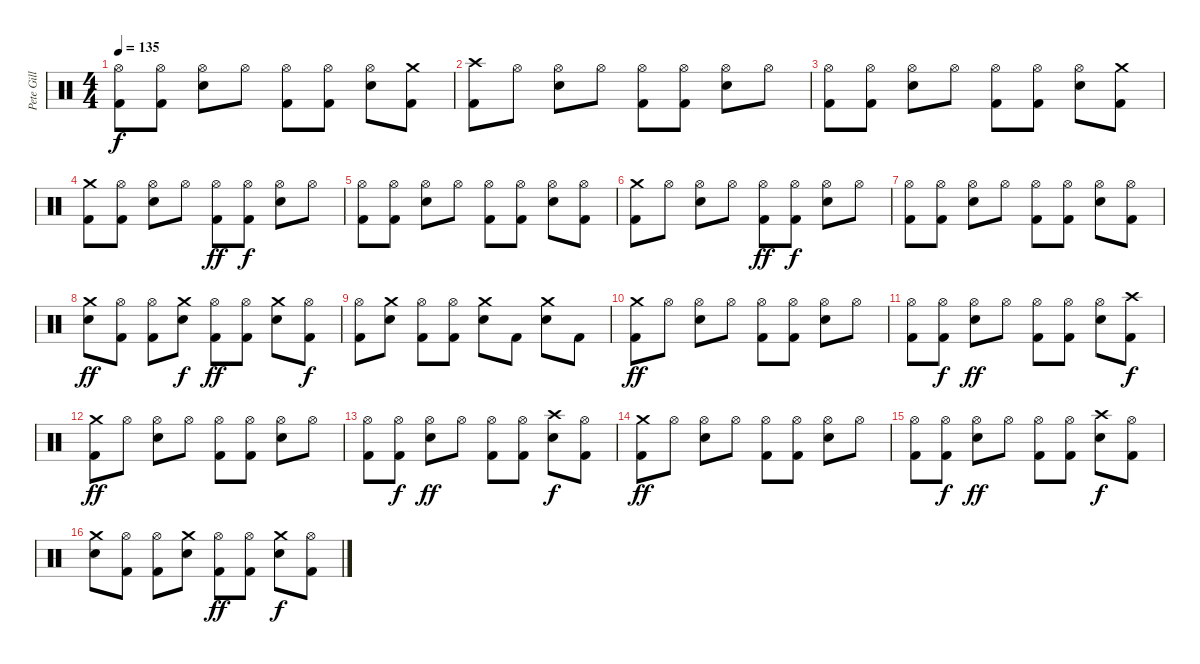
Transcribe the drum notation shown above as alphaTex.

\track ("Pete Gill" "Pete Gill") {instrument percussion}
\staff {score}
\articulation defaults
\ts (4 4)
\tempo 135
\clef neutral
\ks c
("Hi-Hat (open)" "Kick (hit) 2").8{dy f} ("Hi-Hat (open)" "Kick (hit) 2").8 ("Hi-Hat (open)" "Snare (hit) 2").8 "Hi-Hat (open)".8 ("Hi-Hat (open)" "Kick (hit) 2").8 ("Hi-Hat (open)" "Kick (hit) 2").8 ("Hi-Hat (open)" "Snare (hit) 2").8 ("Kick (hit) 2" "Crash medium (hit)").8 |
("Kick (hit) 2" "Crash high (hit)").8 "Hi-Hat (open)".8 ("Hi-Hat (open)" "Snare (hit) 2").8 "Hi-Hat (open)".8 ("Hi-Hat (open)" "Kick (hit) 2").8 ("Hi-Hat (open)" "Kick (hit) 2").8 ("Hi-Hat (open)" "Snare (hit) 2").8 "Hi-Hat (open)".8 |
("Hi-Hat (open)" "Kick (hit) 2").8 ("Hi-Hat (open)" "Kick (hit) 2").8 ("Hi-Hat (open)" "Snare (hit) 2").8 "Hi-Hat (open)".8 ("Hi-Hat (open)" "Kick (hit) 2").8 ("Hi-Hat (open)" "Kick (hit) 2").8 ("Hi-Hat (open)" "Snare (hit) 2").8 ("Kick (hit) 2" "Crash medium (hit)").8 |
("Crash medium (hit)" "Kick (hit) 2").8 ("Hi-Hat (open)" "Kick (hit) 2").8 ("Hi-Hat (open)" "Snare (hit) 2").8 "Hi-Hat (open)".8 ("Hi-Hat (open)" "Kick (hit) 2").8{dy ff} ("Hi-Hat (open)" "Kick (hit) 2").8{dy f} ("Hi-Hat (open)" "Snare (hit) 2").8 "Hi-Hat (open)".8 |
("Hi-Hat (open)" "Kick (hit) 2").8 ("Hi-Hat (open)" "Kick (hit) 2").8 ("Hi-Hat (open)" "Snare (hit) 2").8 "Hi-Hat (open)".8 ("Hi-Hat (open)" "Kick (hit) 2").8 ("Hi-Hat (open)" "Kick (hit) 2").8 ("Hi-Hat (open)" "Snare (hit) 2").8 ("Hi-Hat (open)" "Kick (hit) 2").8 |
("Crash medium (hit)" "Kick (hit) 2").8 "Hi-Hat (open)".8 ("Hi-Hat (open)" "Snare (hit) 2").8 "Hi-Hat (open)".8 ("Hi-Hat (open)" "Kick (hit) 2").8{dy ff} ("Hi-Hat (open)" "Kick (hit) 2").8{dy f} ("Hi-Hat (open)" "Snare (hit) 2").8 "Hi-Hat (open)".8 |
("Hi-Hat (open)" "Kick (hit) 2").8 ("Hi-Hat (open)" "Kick (hit) 2").8 ("Hi-Hat (open)" "Snare (hit) 2").8 "Hi-Hat (open)".8 ("Hi-Hat (open)" "Kick (hit) 2").8 ("Hi-Hat (open)" "Kick (hit) 2").8 ("Hi-Hat (open)" "Snare (hit) 2").8 ("Hi-Hat (open)" "Kick (hit) 2").8 |
("Crash medium (hit)" "Snare (hit) 2").8{dy ff} ("Hi-Hat (open)" "Kick (hit) 2").8 ("Hi-Hat (open)" "Kick (hit) 2").8 ("Crash medium (hit)" "Snare (hit) 2").8{dy f} ("Hi-Hat (open)" "Kick (hit) 2").8{dy ff} ("Hi-Hat (open)" "Kick (hit) 2").8 ("Crash medium (hit)" "Snare (hit) 2").8 ("Hi-Hat (open)" "Kick (hit) 2").8{dy f} |
("Hi-Hat (open)" "Kick (hit) 2").8 ("Crash medium (hit)" "Snare (hit) 2").8 ("Hi-Hat (open)" "Kick (hit) 2").8 ("Hi-Hat (open)" "Kick (hit) 2").8 ("Crash medium (hit)" "Snare (hit) 2").8 "Kick (hit) 2".8 ("Crash medium (hit)" "Snare (hit) 2").8 "Kick (hit) 2".8 |
("Crash medium (hit)" "Kick (hit) 2").8{dy ff} "Hi-Hat (open)".8 ("Hi-Hat (open)" "Snare (hit) 2").8 "Hi-Hat (open)".8 ("Hi-Hat (open)" "Kick (hit) 2").8 ("Hi-Hat (open)" "Kick (hit) 2").8 ("Hi-Hat (open)" "Snare (hit) 2").8 "Hi-Hat (open)".8 |
("Hi-Hat (open)" "Kick (hit) 2").8 ("Hi-Hat (open)" "Kick (hit) 2").8{dy f} ("Hi-Hat (open)" "Snare (hit) 2").8{dy ff} "Hi-Hat (open)".8 ("Hi-Hat (open)" "Kick (hit) 2").8 ("Hi-Hat (open)" "Kick (hit) 2").8 ("Hi-Hat (open)" "Snare (hit) 2").8 ("Kick (hit) 2" "Crash high (hit)").8{dy f} |
("Crash medium (hit)" "Kick (hit) 2").8{dy ff} "Hi-Hat (open)".8 ("Hi-Hat (open)" "Snare (hit) 2").8 "Hi-Hat (open)".8 ("Hi-Hat (open)" "Kick (hit) 2").8 ("Hi-Hat (open)" "Kick (hit) 2").8 ("Hi-Hat (open)" "Snare (hit) 2").8 "Hi-Hat (open)".8 |
("Hi-Hat (open)" "Kick (hit) 2").8 ("Hi-Hat (open)" "Kick (hit) 2").8{dy f} ("Hi-Hat (open)" "Snare (hit) 2").8{dy ff} "Hi-Hat (open)".8 ("Hi-Hat (open)" "Kick (hit) 2").8 ("Hi-Hat (open)" "Kick (hit) 2").8 ("Snare (hit) 2" "Crash high (hit)").8{dy f} ("Hi-Hat (open)" "Kick (hit) 2").8 |
("Crash medium (hit)" "Kick (hit) 2").8{dy ff} "Hi-Hat (open)".8 ("Hi-Hat (open)" "Snare (hit) 2").8 "Hi-Hat (open)".8 ("Hi-Hat (open)" "Kick (hit) 2").8 ("Hi-Hat (open)" "Kick (hit) 2").8 ("Hi-Hat (open)" "Snare (hit) 2").8 "Hi-Hat (open)".8 |
("Hi-Hat (open)" "Kick (hit) 2").8 ("Hi-Hat (open)" "Kick (hit) 2").8{dy f} ("Hi-Hat (open)" "Snare (hit) 2").8{dy ff} "Hi-Hat (open)".8 ("Hi-Hat (open)" "Kick (hit) 2").8 ("Hi-Hat (open)" "Kick (hit) 2").8 ("Snare (hit) 2" "Crash high (hit)").8{dy f} ("Hi-Hat (open)" "Kick (hit) 2").8 |
("Crash medium (hit)" "Snare (hit) 2").8 ("Hi-Hat (open)" "Kick (hit) 2").8 ("Hi-Hat (open)" "Kick (hit) 2").8 ("Crash medium (hit)" "Snare (hit) 2").8 ("Hi-Hat (open)" "Kick (hit) 2").8{dy ff} ("Hi-Hat (open)" "Kick (hit) 2").8 ("Crash medium (hit)" "Snare (hit) 2").8{dy f} ("Hi-Hat (open)" "Kick (hit) 2").8
